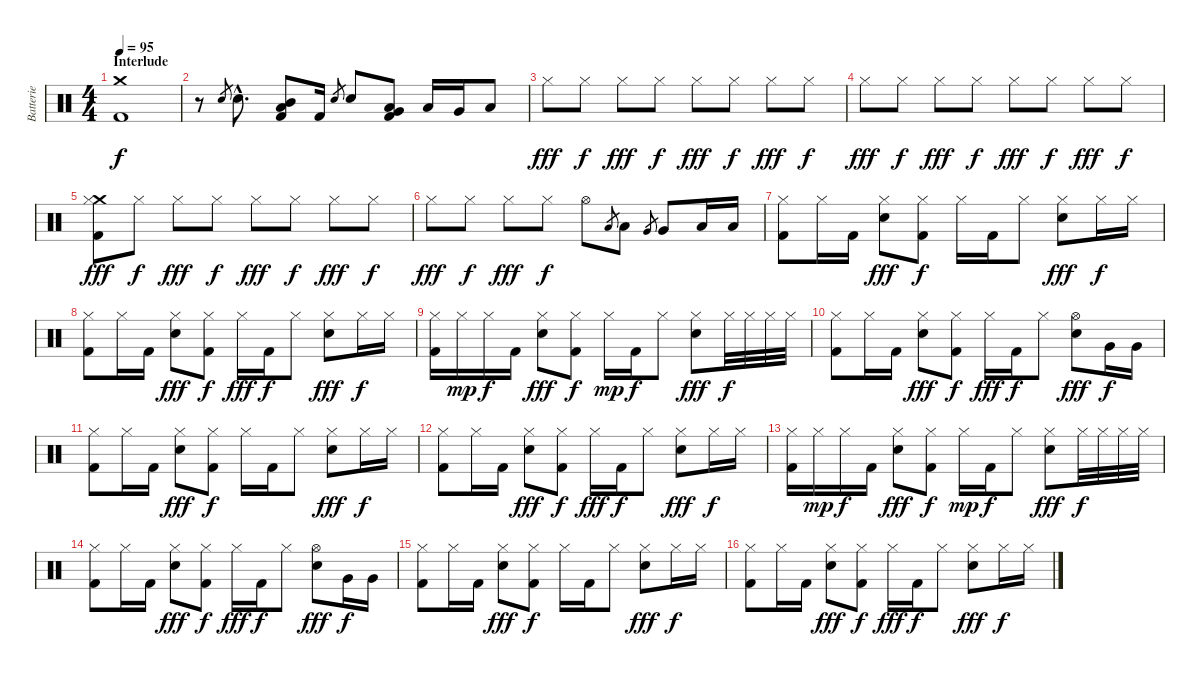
\track ("Batterie" "Batterie") {instrument percussion}
\staff {score}
\articulation defaults
\ts (4 4)
\section ("" "Interlude")
\tempo 95
\clef neutral
\ks c
("Crash medium (hit)" "Kick (hit) 2").1{dy f} |
r.8 "Electric Snare (hit)".8{gr} "Electric Snare (hit)"{hac}.8{d} ("Mid Tom (hit)" "Low Tom (hit)" "Kick (hit) 2").8{bu 120} "Kick (hit) 2".16 "Electric Snare (hit)".8{gr} "Electric Snare (hit)".8 ("Low Tom (hit)" "Very Low Tom (hit)" "Kick (hit) 2").8{bd 120} "Low Tom (hit)".16 "Very Low Tom (hit)".16 "Low Floor Tom (hit)".8 |
"Hi-Hat (closed)".8{dy fff} "Hi-Hat (closed)".8{dy f} "Hi-Hat (closed)".8{dy fff} "Hi-Hat (closed)".8{dy f} "Hi-Hat (closed)".8{dy fff} "Hi-Hat (closed)".8{dy f} "Hi-Hat (closed)".8{dy fff} "Hi-Hat (closed)".8{dy f} |
"Hi-Hat (closed)".8{dy fff} "Hi-Hat (closed)".8{dy f} "Hi-Hat (closed)".8{dy fff} "Hi-Hat (closed)".8{dy f} "Hi-Hat (closed)".8{dy fff} "Hi-Hat (closed)".8{dy f} "Hi-Hat (closed)".8{dy fff} "Hi-Hat (closed)".8{dy f} |
("Crash medium (hit)" "Hi-Hat (closed)" "Kick (hit) 2").8{dy fff} "Hi-Hat (closed)".8{dy f} "Hi-Hat (closed)".8{dy fff} "Hi-Hat (closed)".8{dy f} "Hi-Hat (closed)".8{dy fff} "Hi-Hat (closed)".8{dy f} "Hi-Hat (closed)".8{dy fff} "Hi-Hat (closed)".8{dy f} |
"Hi-Hat (closed)".8{dy fff} "Hi-Hat (closed)".8{dy f} "Hi-Hat (closed)".8{dy fff} "Hi-Hat (closed)".8{dy f} "Hi-Hat (open)".8 "Low Tom (hit)".8{gr} "Low Tom (hit)".8 "Very Low Tom (hit)".8{gr} "Very Low Tom (hit)".8 "Low Floor Tom (hit)".16 "Low Floor Tom (hit)".16 |
("Hi-Hat (closed)" "Kick (hit) 2").8 "Hi-Hat (closed)".16 "Kick (hit) 2".16 ("Hi-Hat (closed)" "Electric Snare (hit)").8{dy fff} ("Hi-Hat (closed)" "Kick (hit) 2").8{dy f} "Hi-Hat (closed)".16 "Kick (hit) 2".16 "Hi-Hat (closed)".8 ("Hi-Hat (closed)" "Electric Snare (hit)").8{dy fff} "Hi-Hat (closed)".16{dy f} "Hi-Hat (closed)".16 |
("Hi-Hat (closed)" "Kick (hit) 2").8 "Hi-Hat (closed)".16 "Kick (hit) 2".16 ("Hi-Hat (closed)" "Electric Snare (hit)").8{dy fff} ("Hi-Hat (closed)" "Kick (hit) 2").8{dy f} "Hi-Hat (closed)".16{dy fff} "Kick (hit) 2".16{dy f} "Hi-Hat (closed)".8 ("Hi-Hat (closed)" "Electric Snare (hit)").8{dy fff} "Hi-Hat (closed)".16{dy f} "Hi-Hat (closed)".16 |
("Hi-Hat (closed)" "Kick (hit) 2").16 "Hi-Hat (closed)".16{dy mp} "Hi-Hat (closed)".16{dy f} "Kick (hit) 2".16 ("Hi-Hat (closed)" "Electric Snare (hit)").8{dy fff} ("Hi-Hat (closed)" "Kick (hit) 2").8{dy f} "Hi-Hat (closed)".16{dy mp} "Kick (hit) 2".16{dy f} "Hi-Hat (closed)".8 ("Hi-Hat (closed)" "Electric Snare (hit)").8{dy fff} "Hi-Hat (closed)".32{dy f} "Hi-Hat (closed)".32 "Hi-Hat (closed)".32 "Hi-Hat (closed)".32 |
("Hi-Hat (closed)" "Kick (hit) 2").8 "Hi-Hat (closed)".16 "Kick (hit) 2".16 ("Hi-Hat (closed)" "Electric Snare (hit)").8{dy fff} ("Hi-Hat (closed)" "Kick (hit) 2").8{dy f} "Hi-Hat (closed)".16{dy fff} "Kick (hit) 2".16{dy f} "Hi-Hat (closed)".8 ("Hi-Hat (open)" "Electric Snare (hit)").8{dy fff} "Very Low Tom (hit)".16{dy f} "Very Low Tom (hit)".16 |
("Hi-Hat (closed)" "Kick (hit) 2").8 "Hi-Hat (closed)".16 "Kick (hit) 2".16 ("Hi-Hat (closed)" "Electric Snare (hit)").8{dy fff} ("Hi-Hat (closed)" "Kick (hit) 2").8{dy f} "Hi-Hat (closed)".16 "Kick (hit) 2".16 "Hi-Hat (closed)".8 ("Hi-Hat (closed)" "Electric Snare (hit)").8{dy fff} "Hi-Hat (closed)".16{dy f} "Hi-Hat (closed)".16 |
("Hi-Hat (closed)" "Kick (hit) 2").8 "Hi-Hat (closed)".16 "Kick (hit) 2".16 ("Hi-Hat (closed)" "Electric Snare (hit)").8{dy fff} ("Hi-Hat (closed)" "Kick (hit) 2").8{dy f} "Hi-Hat (closed)".16{dy fff} "Kick (hit) 2".16{dy f} "Hi-Hat (closed)".8 ("Hi-Hat (closed)" "Electric Snare (hit)").8{dy fff} "Hi-Hat (closed)".16{dy f} "Hi-Hat (closed)".16 |
("Hi-Hat (closed)" "Kick (hit) 2").16 "Hi-Hat (closed)".16{dy mp} "Hi-Hat (closed)".16{dy f} "Kick (hit) 2".16 ("Hi-Hat (closed)" "Electric Snare (hit)").8{dy fff} ("Hi-Hat (closed)" "Kick (hit) 2").8{dy f} "Hi-Hat (closed)".16{dy mp} "Kick (hit) 2".16{dy f} "Hi-Hat (closed)".8 ("Hi-Hat (closed)" "Electric Snare (hit)").8{dy fff} "Hi-Hat (closed)".32{dy f} "Hi-Hat (closed)".32 "Hi-Hat (closed)".32 "Hi-Hat (closed)".32 |
("Hi-Hat (closed)" "Kick (hit) 2").8 "Hi-Hat (closed)".16 "Kick (hit) 2".16 ("Hi-Hat (closed)" "Electric Snare (hit)").8{dy fff} ("Hi-Hat (closed)" "Kick (hit) 2").8{dy f} "Hi-Hat (closed)".16{dy fff} "Kick (hit) 2".16{dy f} "Hi-Hat (closed)".8 ("Hi-Hat (open)" "Electric Snare (hit)").8{dy fff} "Very Low Tom (hit)".16{dy f} "Very Low Tom (hit)".16 |
("Hi-Hat (closed)" "Kick (hit) 2").8 "Hi-Hat (closed)".16 "Kick (hit) 2".16 ("Hi-Hat (closed)" "Electric Snare (hit)").8{dy fff} ("Hi-Hat (closed)" "Kick (hit) 2").8{dy f} "Hi-Hat (closed)".16 "Kick (hit) 2".16 "Hi-Hat (closed)".8 ("Hi-Hat (closed)" "Electric Snare (hit)").8{dy fff} "Hi-Hat (closed)".16{dy f} "Hi-Hat (closed)".16 |
("Hi-Hat (closed)" "Kick (hit) 2").8 "Hi-Hat (closed)".16 "Kick (hit) 2".16 ("Hi-Hat (closed)" "Electric Snare (hit)").8{dy fff} ("Hi-Hat (closed)" "Kick (hit) 2").8{dy f} "Hi-Hat (closed)".16{dy fff} "Kick (hit) 2".16{dy f} "Hi-Hat (closed)".8 ("Hi-Hat (closed)" "Electric Snare (hit)").8{dy fff} "Hi-Hat (closed)".16{dy f} "Hi-Hat (closed)".16
